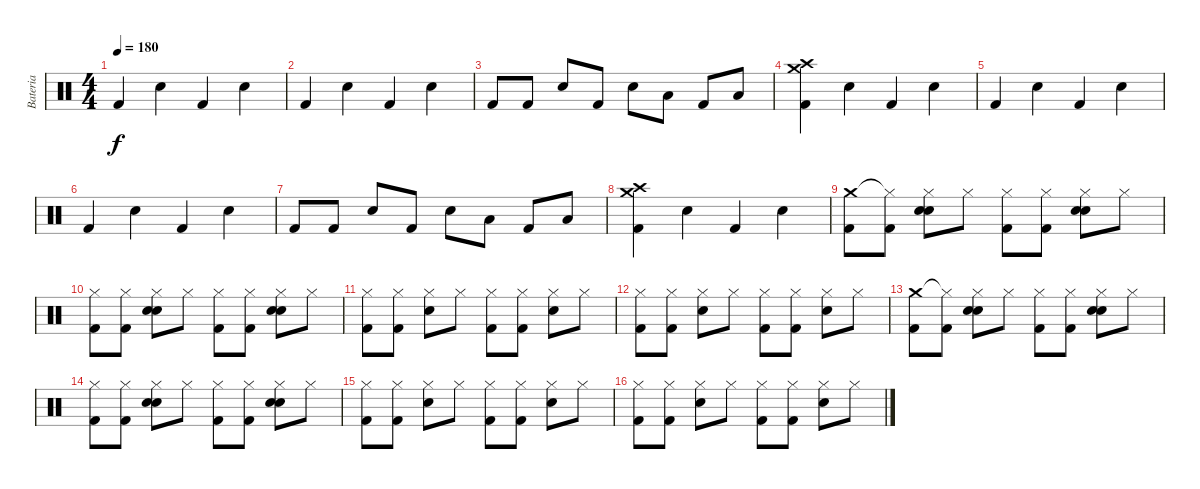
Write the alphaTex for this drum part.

\track ("Bateria" "Bateria") {instrument percussion}
\staff {score}
\articulation defaults
\ts (4 4)
\tempo 180
\clef neutral
\ks c "Kick (hit) 2".4{dy f} "Electric Snare (hit)".4 "Kick (hit) 2".4 "Electric Snare (hit)".4
|
"Kick (hit) 2".4 "Electric Snare (hit)".4 "Kick (hit) 2".4 "Electric Snare (hit)".4 |
"Kick (hit) 2".8 "Kick (hit) 2".8 "Electric Snare (hit)".8 "Kick (hit) 2".8 "Electric Snare (hit)".8 "Low Tom (hit)".8 "Kick (hit) 2".8 "Low Tom (hit)".8 |
("Crash high (hit)" "Crash medium (hit)" "Kick (hit) 2").4 "Electric Snare (hit)".4 "Kick (hit) 2".4 "Electric Snare (hit)".4 |
"Kick (hit) 2".4 "Electric Snare (hit)".4 "Kick (hit) 2".4 "Electric Snare (hit)".4 |
"Kick (hit) 2".4 "Electric Snare (hit)".4 "Kick (hit) 2".4 "Electric Snare (hit)".4 |
"Kick (hit) 2".8 "Kick (hit) 2".8 "Electric Snare (hit)".8 "Kick (hit) 2".8 "Electric Snare (hit)".8 "Low Tom (hit)".8 "Kick (hit) 2".8 "Low Tom (hit)".8 |
("Crash high (hit)" "Crash medium (hit)" "Kick (hit) 2").4 "Electric Snare (hit)".4 "Kick (hit) 2".4 "Electric Snare (hit)".4 |
("Crash medium (hit)" "Kick (hit) 2").8 ("Hi-Hat (closed)"{t} "Kick (hit) 2").8 ("Hi-Hat (closed)" "Snare (hit) 2" "Electric Snare (hit)").8 "Hi-Hat (closed)".8 ("Hi-Hat (closed)" "Kick (hit) 2").8 ("Hi-Hat (closed)" "Kick (hit) 2").8 ("Hi-Hat (closed)" "Snare (hit) 2" "Electric Snare (hit)").8 "Hi-Hat (closed)".8 |
("Hi-Hat (closed)" "Kick (hit) 2").8 ("Hi-Hat (closed)" "Kick (hit) 2").8 ("Hi-Hat (closed)" "Snare (hit) 2" "Electric Snare (hit)").8 "Hi-Hat (closed)".8 ("Hi-Hat (closed)" "Kick (hit) 2").8 ("Hi-Hat (closed)" "Kick (hit) 2").8 ("Hi-Hat (closed)" "Snare (hit) 2" "Electric Snare (hit)").8 "Hi-Hat (closed)".8 |
("Hi-Hat (closed)" "Kick (hit) 2").8 ("Hi-Hat (closed)" "Kick (hit) 2").8 ("Hi-Hat (closed)" "Electric Snare (hit)").8 "Hi-Hat (closed)".8 ("Hi-Hat (closed)" "Kick (hit) 2").8 ("Hi-Hat (closed)" "Kick (hit) 2").8 ("Hi-Hat (closed)" "Electric Snare (hit)").8 "Hi-Hat (closed)".8 |
("Hi-Hat (closed)" "Kick (hit) 2").8 ("Hi-Hat (closed)" "Kick (hit) 2").8 ("Hi-Hat (closed)" "Electric Snare (hit)").8 "Hi-Hat (closed)".8 ("Hi-Hat (closed)" "Kick (hit) 2").8 ("Hi-Hat (closed)" "Kick (hit) 2").8 ("Hi-Hat (closed)" "Electric Snare (hit)").8 "Hi-Hat (closed)".8 |
("Crash medium (hit)" "Kick (hit) 2").8 ("Hi-Hat (closed)"{t} "Kick (hit) 2").8 ("Hi-Hat (closed)" "Snare (hit) 2" "Electric Snare (hit)").8 "Hi-Hat (closed)".8 ("Hi-Hat (closed)" "Kick (hit) 2").8 ("Hi-Hat (closed)" "Kick (hit) 2").8 ("Hi-Hat (closed)" "Snare (hit) 2" "Electric Snare (hit)").8 "Hi-Hat (closed)".8 |
("Hi-Hat (closed)" "Kick (hit) 2").8 ("Hi-Hat (closed)" "Kick (hit) 2").8 ("Hi-Hat (closed)" "Snare (hit) 2" "Electric Snare (hit)").8 "Hi-Hat (closed)".8 ("Hi-Hat (closed)" "Kick (hit) 2").8 ("Hi-Hat (closed)" "Kick (hit) 2").8 ("Hi-Hat (closed)" "Snare (hit) 2" "Electric Snare (hit)").8 "Hi-Hat (closed)".8 |
("Hi-Hat (closed)" "Kick (hit) 2").8 ("Hi-Hat (closed)" "Kick (hit) 2").8 ("Hi-Hat (closed)" "Electric Snare (hit)").8 "Hi-Hat (closed)".8 ("Hi-Hat (closed)" "Kick (hit) 2").8 ("Hi-Hat (closed)" "Kick (hit) 2").8 ("Hi-Hat (closed)" "Electric Snare (hit)").8 "Hi-Hat (closed)".8 |
("Hi-Hat (closed)" "Kick (hit) 2").8 ("Hi-Hat (closed)" "Kick (hit) 2").8 ("Hi-Hat (closed)" "Electric Snare (hit)").8 "Hi-Hat (closed)".8 ("Hi-Hat (closed)" "Kick (hit) 2").8 ("Hi-Hat (closed)" "Kick (hit) 2").8 ("Hi-Hat (closed)" "Electric Snare (hit)").8 "Hi-Hat (closed)".8
